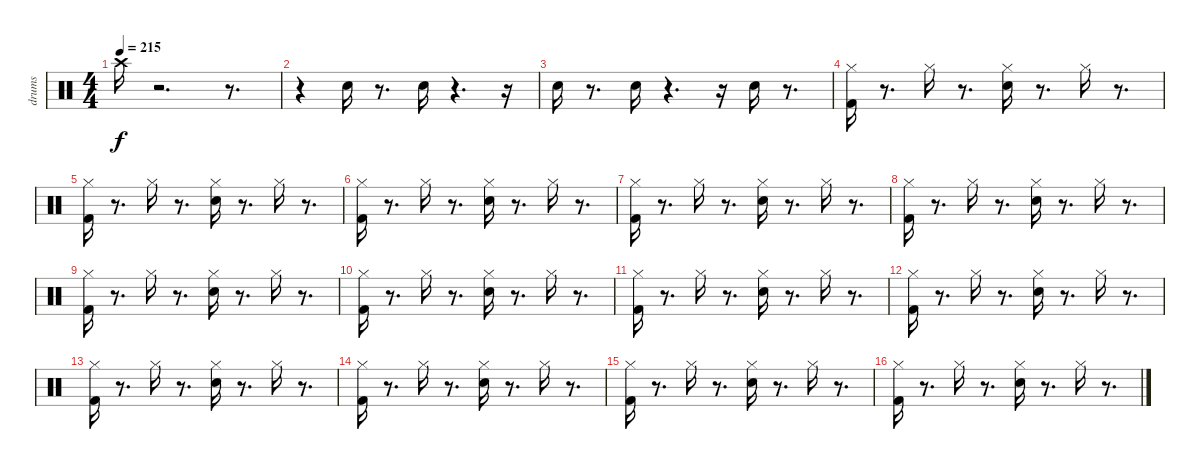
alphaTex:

\track ("drums" "drums") {instrument percussion}
\staff {score}
\articulation defaults
\ts (4 4)
\tempo 215
\clef neutral
\ks c "Crash high (hit)".16{dy f}
r.2{d} r.8{d} |
r.4 "Electric Snare (hit)".16 r.8{d} "Electric Snare (hit)".16 r.4{d} r.16 |
"Electric Snare (hit)".16 r.8{d} "Electric Snare (hit)".16 r.4{d} r.16 "Electric Snare (hit)".16 r.8{d} |
("Hi-Hat (closed)" "Kick (hit) 2").16 r.8{d} "Hi-Hat (closed)".16 r.8{d} ("Hi-Hat (closed)" "Electric Snare (hit)").16 r.8{d} "Hi-Hat (closed)".16 r.8{d} |
("Hi-Hat (closed)" "Kick (hit) 2").16 r.8{d} "Hi-Hat (closed)".16 r.8{d} ("Hi-Hat (closed)" "Electric Snare (hit)").16 r.8{d} "Hi-Hat (closed)".16 r.8{d} |
("Hi-Hat (closed)" "Kick (hit) 2").16 r.8{d} "Hi-Hat (closed)".16 r.8{d} ("Hi-Hat (closed)" "Electric Snare (hit)").16 r.8{d} "Hi-Hat (closed)".16 r.8{d} |
("Hi-Hat (closed)" "Kick (hit) 2").16 r.8{d} "Hi-Hat (closed)".16 r.8{d} ("Hi-Hat (closed)" "Electric Snare (hit)").16 r.8{d} "Hi-Hat (closed)".16 r.8{d} |
("Hi-Hat (closed)" "Kick (hit) 2").16 r.8{d} "Hi-Hat (closed)".16 r.8{d} ("Hi-Hat (closed)" "Electric Snare (hit)").16 r.8{d} "Hi-Hat (closed)".16 r.8{d} |
("Hi-Hat (closed)" "Kick (hit) 2").16 r.8{d} "Hi-Hat (closed)".16 r.8{d} ("Hi-Hat (closed)" "Electric Snare (hit)").16 r.8{d} "Hi-Hat (closed)".16 r.8{d} |
("Hi-Hat (closed)" "Kick (hit) 2").16 r.8{d} "Hi-Hat (closed)".16 r.8{d} ("Hi-Hat (closed)" "Electric Snare (hit)").16 r.8{d} "Hi-Hat (closed)".16 r.8{d} |
("Hi-Hat (closed)" "Kick (hit) 2").16 r.8{d} "Hi-Hat (closed)".16 r.8{d} ("Hi-Hat (closed)" "Electric Snare (hit)").16 r.8{d} "Hi-Hat (closed)".16 r.8{d} |
("Hi-Hat (closed)" "Kick (hit) 2").16 r.8{d} "Hi-Hat (closed)".16 r.8{d} ("Hi-Hat (closed)" "Electric Snare (hit)").16 r.8{d} "Hi-Hat (closed)".16 r.8{d} |
("Hi-Hat (closed)" "Kick (hit) 2").16 r.8{d} "Hi-Hat (closed)".16 r.8{d} ("Hi-Hat (closed)" "Electric Snare (hit)").16 r.8{d} "Hi-Hat (closed)".16 r.8{d} |
("Hi-Hat (closed)" "Kick (hit) 2").16 r.8{d} "Hi-Hat (closed)".16 r.8{d} ("Hi-Hat (closed)" "Electric Snare (hit)").16 r.8{d} "Hi-Hat (closed)".16 r.8{d} |
("Hi-Hat (closed)" "Kick (hit) 2").16 r.8{d} "Hi-Hat (closed)".16 r.8{d} ("Hi-Hat (closed)" "Electric Snare (hit)").16 r.8{d} "Hi-Hat (closed)".16 r.8{d} |
("Hi-Hat (closed)" "Kick (hit) 2").16 r.8{d} "Hi-Hat (closed)".16 r.8{d} ("Hi-Hat (closed)" "Electric Snare (hit)").16 r.8{d} "Hi-Hat (closed)".16 r.8{d}
